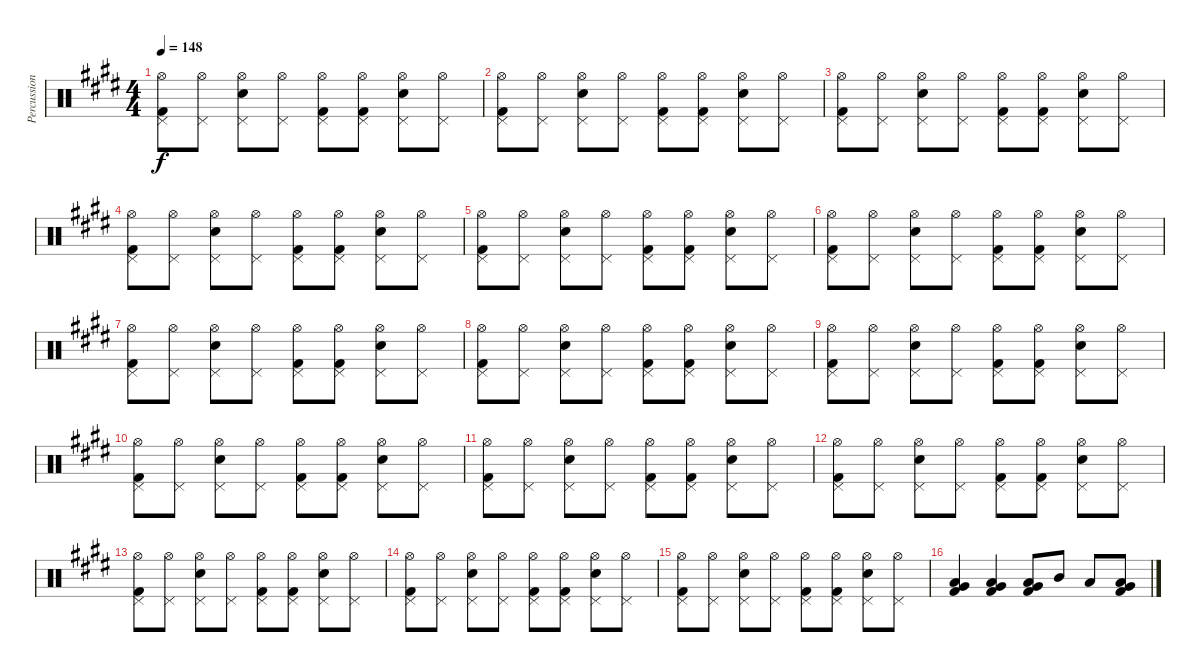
\track ("Percussion" "Percussion") {instrument percussion}
\staff {score}
\articulation defaults
\ts (4 4)
\tempo 148
\clef neutral
\ks e
("Hi-Hat (open)" "Pedal Hi-Hat (hit)" "Kick (hit) 2").8{dy f} ("Hi-Hat (open)" "Pedal Hi-Hat (hit)").8 ("Hi-Hat (open)" "Pedal Hi-Hat (hit)" "Snare (hit) 2").8 ("Hi-Hat (open)" "Pedal Hi-Hat (hit)").8 ("Hi-Hat (open)" "Pedal Hi-Hat (hit)" "Kick (hit) 2").8 ("Hi-Hat (open)" "Pedal Hi-Hat (hit)" "Kick (hit) 2").8 ("Hi-Hat (open)" "Pedal Hi-Hat (hit)" "Snare (hit) 2").8 ("Hi-Hat (open)" "Pedal Hi-Hat (hit)").8 |
("Hi-Hat (open)" "Pedal Hi-Hat (hit)" "Kick (hit) 2").8 ("Hi-Hat (open)" "Pedal Hi-Hat (hit)").8 ("Hi-Hat (open)" "Pedal Hi-Hat (hit)" "Snare (hit) 2").8 ("Hi-Hat (open)" "Pedal Hi-Hat (hit)").8 ("Hi-Hat (open)" "Pedal Hi-Hat (hit)" "Kick (hit) 2").8 ("Hi-Hat (open)" "Pedal Hi-Hat (hit)" "Kick (hit) 2").8 ("Hi-Hat (open)" "Pedal Hi-Hat (hit)" "Snare (hit) 2").8 ("Hi-Hat (open)" "Pedal Hi-Hat (hit)").8 |
("Hi-Hat (open)" "Pedal Hi-Hat (hit)" "Kick (hit) 2").8 ("Hi-Hat (open)" "Pedal Hi-Hat (hit)").8 ("Hi-Hat (open)" "Pedal Hi-Hat (hit)" "Snare (hit) 2").8 ("Hi-Hat (open)" "Pedal Hi-Hat (hit)").8 ("Hi-Hat (open)" "Pedal Hi-Hat (hit)" "Kick (hit) 2").8 ("Hi-Hat (open)" "Pedal Hi-Hat (hit)" "Kick (hit) 2").8 ("Hi-Hat (open)" "Pedal Hi-Hat (hit)" "Snare (hit) 2").8 ("Hi-Hat (open)" "Pedal Hi-Hat (hit)").8 |
("Hi-Hat (open)" "Pedal Hi-Hat (hit)" "Kick (hit) 2").8 ("Hi-Hat (open)" "Pedal Hi-Hat (hit)").8 ("Hi-Hat (open)" "Pedal Hi-Hat (hit)" "Snare (hit) 2").8 ("Hi-Hat (open)" "Pedal Hi-Hat (hit)").8 ("Hi-Hat (open)" "Pedal Hi-Hat (hit)" "Kick (hit) 2").8 ("Hi-Hat (open)" "Pedal Hi-Hat (hit)" "Kick (hit) 2").8 ("Hi-Hat (open)" "Pedal Hi-Hat (hit)" "Snare (hit) 2").8 ("Hi-Hat (open)" "Pedal Hi-Hat (hit)").8 |
("Hi-Hat (open)" "Pedal Hi-Hat (hit)" "Kick (hit) 2").8 ("Hi-Hat (open)" "Pedal Hi-Hat (hit)").8 ("Hi-Hat (open)" "Pedal Hi-Hat (hit)" "Snare (hit) 2").8 ("Hi-Hat (open)" "Pedal Hi-Hat (hit)").8 ("Hi-Hat (open)" "Pedal Hi-Hat (hit)" "Kick (hit) 2").8 ("Hi-Hat (open)" "Pedal Hi-Hat (hit)" "Kick (hit) 2").8 ("Hi-Hat (open)" "Pedal Hi-Hat (hit)" "Snare (hit) 2").8 ("Hi-Hat (open)" "Pedal Hi-Hat (hit)").8 |
("Hi-Hat (open)" "Pedal Hi-Hat (hit)" "Kick (hit) 2").8 ("Hi-Hat (open)" "Pedal Hi-Hat (hit)").8 ("Hi-Hat (open)" "Pedal Hi-Hat (hit)" "Snare (hit) 2").8 ("Hi-Hat (open)" "Pedal Hi-Hat (hit)").8 ("Hi-Hat (open)" "Pedal Hi-Hat (hit)" "Kick (hit) 2").8 ("Hi-Hat (open)" "Pedal Hi-Hat (hit)" "Kick (hit) 2").8 ("Hi-Hat (open)" "Pedal Hi-Hat (hit)" "Snare (hit) 2").8 ("Hi-Hat (open)" "Pedal Hi-Hat (hit)").8 |
("Hi-Hat (open)" "Pedal Hi-Hat (hit)" "Kick (hit) 2").8 ("Hi-Hat (open)" "Pedal Hi-Hat (hit)").8 ("Hi-Hat (open)" "Pedal Hi-Hat (hit)" "Snare (hit) 2").8 ("Hi-Hat (open)" "Pedal Hi-Hat (hit)").8 ("Hi-Hat (open)" "Pedal Hi-Hat (hit)" "Kick (hit) 2").8 ("Hi-Hat (open)" "Pedal Hi-Hat (hit)" "Kick (hit) 2").8 ("Hi-Hat (open)" "Pedal Hi-Hat (hit)" "Snare (hit) 2").8 ("Hi-Hat (open)" "Pedal Hi-Hat (hit)").8 |
("Hi-Hat (open)" "Pedal Hi-Hat (hit)" "Kick (hit) 2").8 ("Hi-Hat (open)" "Pedal Hi-Hat (hit)").8 ("Hi-Hat (open)" "Pedal Hi-Hat (hit)" "Snare (hit) 2").8 ("Hi-Hat (open)" "Pedal Hi-Hat (hit)").8 ("Hi-Hat (open)" "Pedal Hi-Hat (hit)" "Kick (hit) 2").8 ("Hi-Hat (open)" "Pedal Hi-Hat (hit)" "Kick (hit) 2").8 ("Hi-Hat (open)" "Pedal Hi-Hat (hit)" "Snare (hit) 2").8 ("Hi-Hat (open)" "Pedal Hi-Hat (hit)").8 |
("Hi-Hat (open)" "Pedal Hi-Hat (hit)" "Kick (hit) 2").8 ("Hi-Hat (open)" "Pedal Hi-Hat (hit)").8 ("Hi-Hat (open)" "Pedal Hi-Hat (hit)" "Snare (hit) 2").8 ("Hi-Hat (open)" "Pedal Hi-Hat (hit)").8 ("Hi-Hat (open)" "Pedal Hi-Hat (hit)" "Kick (hit) 2").8 ("Hi-Hat (open)" "Pedal Hi-Hat (hit)" "Kick (hit) 2").8 ("Hi-Hat (open)" "Pedal Hi-Hat (hit)" "Snare (hit) 2").8 ("Hi-Hat (open)" "Pedal Hi-Hat (hit)").8 |
("Hi-Hat (open)" "Pedal Hi-Hat (hit)" "Kick (hit) 2").8 ("Hi-Hat (open)" "Pedal Hi-Hat (hit)").8 ("Hi-Hat (open)" "Pedal Hi-Hat (hit)" "Snare (hit) 2").8 ("Hi-Hat (open)" "Pedal Hi-Hat (hit)").8 ("Hi-Hat (open)" "Pedal Hi-Hat (hit)" "Kick (hit) 2").8 ("Hi-Hat (open)" "Pedal Hi-Hat (hit)" "Kick (hit) 2").8 ("Hi-Hat (open)" "Pedal Hi-Hat (hit)" "Snare (hit) 2").8 ("Hi-Hat (open)" "Pedal Hi-Hat (hit)").8 |
("Hi-Hat (open)" "Pedal Hi-Hat (hit)" "Kick (hit) 2").8 ("Hi-Hat (open)" "Pedal Hi-Hat (hit)").8 ("Hi-Hat (open)" "Pedal Hi-Hat (hit)" "Snare (hit) 2").8 ("Hi-Hat (open)" "Pedal Hi-Hat (hit)").8 ("Hi-Hat (open)" "Pedal Hi-Hat (hit)" "Kick (hit) 2").8 ("Hi-Hat (open)" "Pedal Hi-Hat (hit)" "Kick (hit) 2").8 ("Hi-Hat (open)" "Pedal Hi-Hat (hit)" "Snare (hit) 2").8 ("Hi-Hat (open)" "Pedal Hi-Hat (hit)").8 |
("Hi-Hat (open)" "Pedal Hi-Hat (hit)" "Kick (hit) 2").8 ("Hi-Hat (open)" "Pedal Hi-Hat (hit)").8 ("Hi-Hat (open)" "Pedal Hi-Hat (hit)" "Snare (hit) 2").8 ("Hi-Hat (open)" "Pedal Hi-Hat (hit)").8 ("Hi-Hat (open)" "Pedal Hi-Hat (hit)" "Kick (hit) 2").8 ("Hi-Hat (open)" "Pedal Hi-Hat (hit)" "Kick (hit) 2").8 ("Hi-Hat (open)" "Pedal Hi-Hat (hit)" "Snare (hit) 2").8 ("Hi-Hat (open)" "Pedal Hi-Hat (hit)").8 |
("Hi-Hat (open)" "Pedal Hi-Hat (hit)" "Kick (hit) 2").8 ("Hi-Hat (open)" "Pedal Hi-Hat (hit)").8 ("Hi-Hat (open)" "Pedal Hi-Hat (hit)" "Snare (hit) 2").8 ("Hi-Hat (open)" "Pedal Hi-Hat (hit)").8 ("Hi-Hat (open)" "Pedal Hi-Hat (hit)" "Kick (hit) 2").8 ("Hi-Hat (open)" "Pedal Hi-Hat (hit)" "Kick (hit) 2").8 ("Hi-Hat (open)" "Pedal Hi-Hat (hit)" "Snare (hit) 2").8 ("Hi-Hat (open)" "Pedal Hi-Hat (hit)").8 |
("Hi-Hat (open)" "Pedal Hi-Hat (hit)" "Kick (hit) 2").8 ("Hi-Hat (open)" "Pedal Hi-Hat (hit)").8 ("Hi-Hat (open)" "Pedal Hi-Hat (hit)" "Snare (hit) 2").8 ("Hi-Hat (open)" "Pedal Hi-Hat (hit)").8 ("Hi-Hat (open)" "Pedal Hi-Hat (hit)" "Kick (hit) 2").8 ("Hi-Hat (open)" "Pedal Hi-Hat (hit)" "Kick (hit) 2").8 ("Hi-Hat (open)" "Pedal Hi-Hat (hit)" "Snare (hit) 2").8 ("Hi-Hat (open)" "Pedal Hi-Hat (hit)").8 |
("Hi-Hat (open)" "Pedal Hi-Hat (hit)" "Kick (hit) 2").8 ("Hi-Hat (open)" "Pedal Hi-Hat (hit)").8 ("Hi-Hat (open)" "Pedal Hi-Hat (hit)" "Snare (hit) 2").8 ("Hi-Hat (open)" "Pedal Hi-Hat (hit)").8 ("Hi-Hat (open)" "Pedal Hi-Hat (hit)" "Kick (hit) 2").8 ("Hi-Hat (open)" "Pedal Hi-Hat (hit)" "Kick (hit) 2").8 ("Hi-Hat (open)" "Pedal Hi-Hat (hit)" "Snare (hit) 2").8 ("Hi-Hat (open)" "Pedal Hi-Hat (hit)").8 |
("Low Floor Tom (hit)" "Very Low Tom (hit)" "Kick (hit) 2").4 ("Low Floor Tom (hit)" "Very Low Tom (hit)" "Kick (hit) 2").4 ("Low Floor Tom (hit)" "Very Low Tom (hit)" "Kick (hit) 2").8 "Mid Tom (hit)".8 "Low Tom (hit)".8 ("Low Floor Tom (hit)" "Very Low Tom (hit)" "Kick (hit) 2").8
